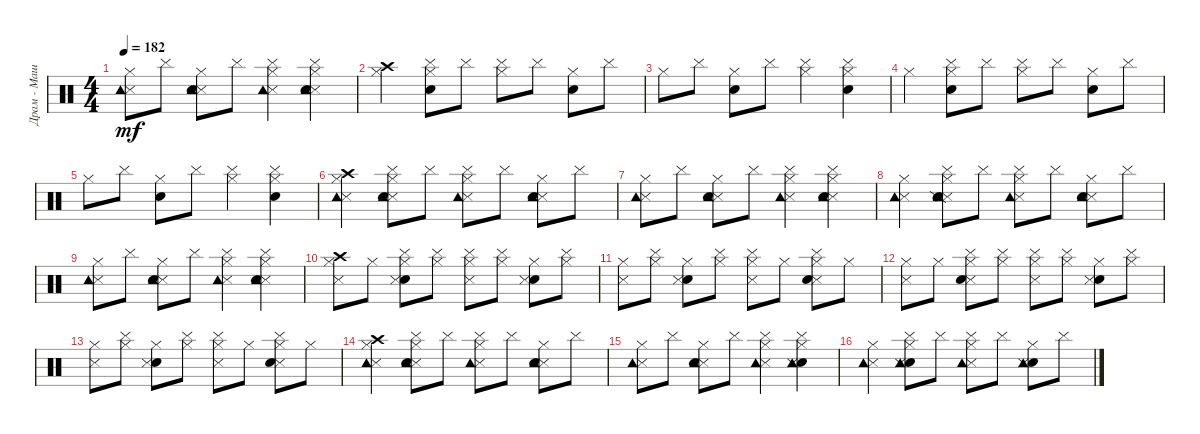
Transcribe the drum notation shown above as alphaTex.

\track ("Драм - Машина" "Драм - Маш") {instrument percussion}
\staff {score}
\articulation defaults
\ts (4 4)
\tempo 182
\clef neutral
\ks c
("Metronome (hit)" "Tambourine (hit)" "Hi-Hat (closed)").8{dy mf} "Cymbal (hit)".8 ("Metronome (hit)" "Metronome (bell)" "Hi-Hat (closed)" "Tambourine (hit)").8 "Cymbal (hit)".8 ("Metronome (hit)" "Cymbal (hit)" "Hi-Hat (closed)" "Tambourine (hit)").4 ("Metronome (hit)" "Metronome (bell)" "Cymbal (hit)" "Hi-Hat (closed)" "Tambourine (hit)").4 |
("Crash high (hit)" "Hi-Hat (closed)").4 ("Metronome (bell)" "Hi-Hat (closed)" "Cymbal (hit)").8 "Cymbal (hit)".8 ("Hi-Hat (closed)" "Cymbal (hit)").8 "Cymbal (hit)".8 ("Metronome (bell)" "Hi-Hat (closed)").8 "Cymbal (hit)".8 |
"Hi-Hat (closed)".8 "Cymbal (hit)".8 ("Metronome (bell)" "Hi-Hat (closed)").8 "Cymbal (hit)".8 ("Hi-Hat (closed)" "Cymbal (hit)").4 ("Metronome (bell)" "Hi-Hat (closed)" "Cymbal (hit)").4 |
"Hi-Hat (closed)".4 ("Metronome (bell)" "Hi-Hat (closed)" "Cymbal (hit)").8 "Cymbal (hit)".8 ("Hi-Hat (closed)" "Cymbal (hit)").8 "Cymbal (hit)".8 ("Metronome (bell)" "Hi-Hat (closed)").8 "Cymbal (hit)".8 |
"Hi-Hat (closed)".8 "Cymbal (hit)".8 ("Metronome (bell)" "Hi-Hat (closed)").8 "Cymbal (hit)".8 ("Hi-Hat (closed)" "Cymbal (hit)").4 ("Metronome (bell)" "Hi-Hat (closed)" "Cymbal (hit)").4 |
("Metronome (hit)" "Crash high (hit)" "Tambourine (hit)" "Hi-Hat (closed)").4 ("Metronome (hit)" "Metronome (bell)" "Tambourine (hit)" "Hi-Hat (closed)" "Cymbal (hit)").8 "Cymbal (hit)".8 ("Metronome (hit)" "Tambourine (hit)" "Hi-Hat (closed)" "Cymbal (hit)").8 "Cymbal (hit)".8 ("Metronome (hit)" "Metronome (bell)" "Hi-Hat (closed)" "Tambourine (hit)").8 "Cymbal (hit)".8 |
("Metronome (hit)" "Hi-Hat (closed)" "Tambourine (hit)").8 "Cymbal (hit)".8 ("Metronome (hit)" "Metronome (bell)" "Tambourine (hit)" "Hi-Hat (closed)").8 "Cymbal (hit)".8 ("Metronome (hit)" "Cymbal (hit)" "Hi-Hat (closed)" "Tambourine (hit)").4 ("Metronome (hit)" "Metronome (bell)" "Cymbal (hit)" "Hi-Hat (closed)" "Tambourine (hit)").4 |
("Metronome (hit)" "Hi-Hat (closed)" "Tambourine (hit)").4 ("Metronome (hit)" "Metronome (bell)" "Snare (side stick) 2" "Cymbal (hit)" "Hi-Hat (closed)" "Tambourine (hit)").8 "Cymbal (hit)".8 ("Metronome (hit)" "Cymbal (hit)" "Tambourine (hit)" "Hi-Hat (closed)").8 "Cymbal (hit)".8 ("Metronome (hit)" "Metronome (bell)" "Tambourine (hit)" "Hi-Hat (closed)").8 "Cymbal (hit)".8 |
("Metronome (hit)" "Tambourine (hit)" "Hi-Hat (closed)").8 "Cymbal (hit)".8 ("Metronome (hit)" "Metronome (bell)" "Hi-Hat (closed)" "Tambourine (hit)").8 "Cymbal (hit)".8 ("Metronome (hit)" "Cymbal (hit)" "Tambourine (hit)" "Hi-Hat (closed)").4 ("Metronome (hit)" "Metronome (bell)" "Cymbal (hit)" "Hi-Hat (closed)" "Tambourine (hit)").4 |
("Metronome (hit)" "Hi-Hat (closed)" "Crash high (hit)").8 "Hi-Hat (closed)".8 ("Metronome (bell)" "Metronome (hit)" "Hi-Hat (closed)" "Cymbal (hit)").8 ("Hi-Hat (closed)" "Cymbal (hit)").8 ("Metronome (hit)" "Hi-Hat (closed)" "Cymbal (hit)").8 ("Hi-Hat (closed)" "Cymbal (hit)").8 ("Metronome (bell)" "Metronome (hit)" "Hi-Hat (closed)").8 ("Hi-Hat (closed)" "Cymbal (hit)").8 |
("Metronome (hit)" "Hi-Hat (closed)").8 ("Hi-Hat (closed)" "Cymbal (hit)").8 ("Metronome (bell)" "Metronome (hit)" "Hi-Hat (closed)").8 ("Hi-Hat (closed)" "Cymbal (hit)").8 ("Metronome (hit)" "Hi-Hat (closed)" "Cymbal (hit)").8 "Hi-Hat (closed)".8 ("Metronome (hit)" "Metronome (bell)" "Hi-Hat (closed)" "Cymbal (hit)").8 "Hi-Hat (closed)".8 |
("Metronome (hit)" "Hi-Hat (closed)").8 "Hi-Hat (closed)".8 ("Metronome (hit)" "Metronome (bell)" "Hi-Hat (closed)" "Cymbal (hit)").8 ("Hi-Hat (closed)" "Cymbal (hit)").8 ("Metronome (hit)" "Hi-Hat (closed)" "Cymbal (hit)").8 ("Hi-Hat (closed)" "Cymbal (hit)").8 ("Metronome (bell)" "Metronome (hit)" "Hi-Hat (closed)").8 ("Hi-Hat (closed)" "Cymbal (hit)").8 |
("Metronome (hit)" "Hi-Hat (closed)").8 ("Hi-Hat (closed)" "Cymbal (hit)").8 ("Metronome (bell)" "Metronome (hit)" "Hi-Hat (closed)").8 ("Hi-Hat (closed)" "Cymbal (hit)").8 ("Metronome (hit)" "Hi-Hat (closed)" "Cymbal (hit)").8 "Hi-Hat (closed)".8 ("Metronome (hit)" "Metronome (bell)" "Hi-Hat (closed)" "Cymbal (hit)").8 "Hi-Hat (closed)".8 |
("Metronome (hit)" "Crash high (hit)" "Tambourine (hit)" "Hi-Hat (closed)").4 ("Metronome (hit)" "Metronome (bell)" "Tambourine (hit)" "Hi-Hat (closed)" "Cymbal (hit)").8 "Cymbal (hit)".8 ("Metronome (hit)" "Hi-Hat (closed)" "Tambourine (hit)" "Cymbal (hit)").8 "Cymbal (hit)".8 ("Metronome (hit)" "Metronome (bell)" "Tambourine (hit)" "Hi-Hat (closed)").8 "Cymbal (hit)".8 |
("Metronome (hit)" "Hi-Hat (closed)" "Tambourine (hit)").8 "Cymbal (hit)".8 ("Metronome (hit)" "Metronome (bell)" "Tambourine (hit)" "Hi-Hat (closed)").8 "Cymbal (hit)".8 ("Metronome (hit)" "Hi-Hat (closed)" "Tambourine (hit)" "Cymbal (hit)").4 ("Metronome (bell)" "Metronome (hit)" "Hi-Hat (closed)" "Tambourine (hit)" "Cymbal (hit)").4 |
("Metronome (hit)" "Hi-Hat (closed)" "Tambourine (hit)").4 ("Metronome (bell)" "Metronome (hit)" "Tambourine (hit)" "Hi-Hat (closed)" "Cymbal (hit)").8 "Cymbal (hit)".8 ("Metronome (hit)" "Tambourine (hit)" "Hi-Hat (closed)" "Cymbal (hit)").8 "Cymbal (hit)".8 ("Metronome (bell)" "Metronome (hit)" "Tambourine (hit)" "Hi-Hat (closed)").8 "Cymbal (hit)".8
